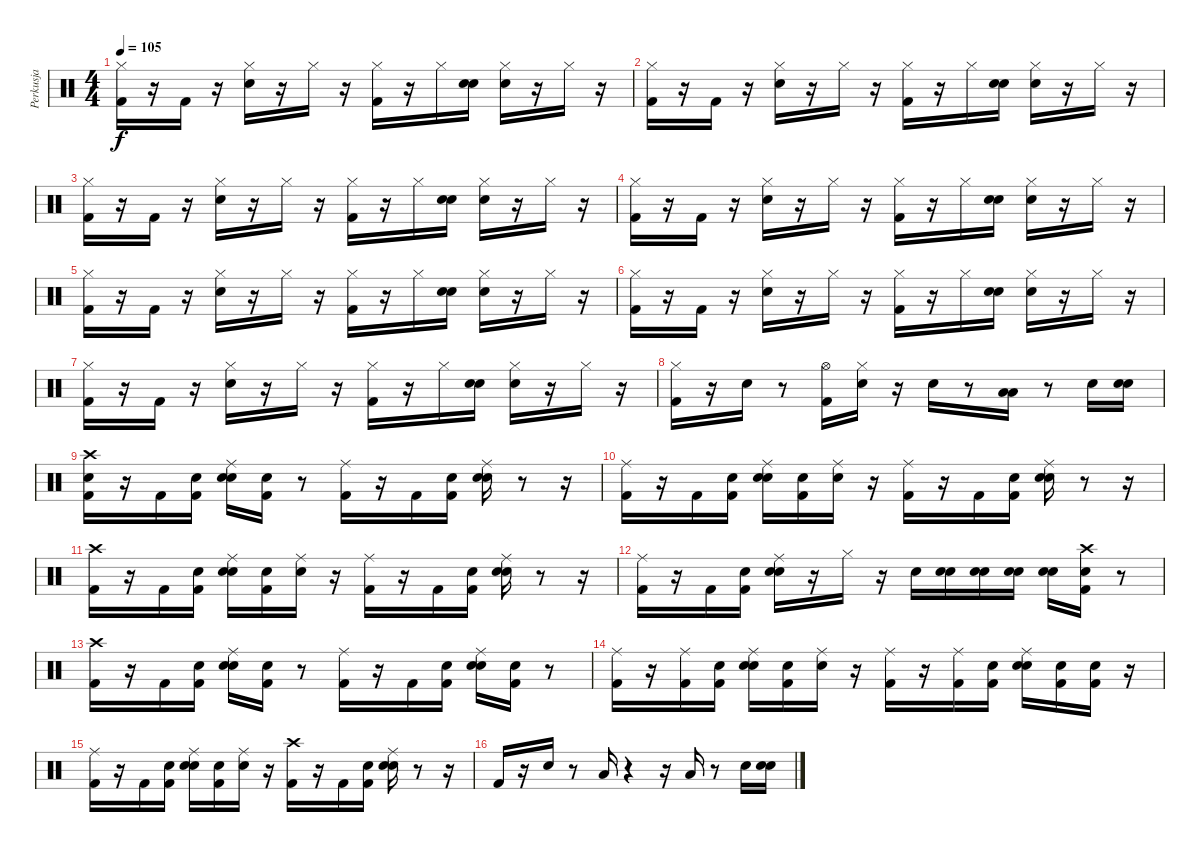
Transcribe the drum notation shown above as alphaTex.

\track ("Perkusja" "Perkusja") {instrument percussion}
\staff {score}
\articulation defaults
\ts (4 4)
\tempo 105
\clef neutral
\ks c
("Kick (hit) 2" "Hi-Hat (closed)").16{dy f} r.16 "Kick (hit) 2".16 r.16 ("Snare (hit) 2" "Hi-Hat (closed)").16 r.16 "Hi-Hat (closed)".16 r.16 ("Kick (hit) 2" "Hi-Hat (closed)").16 r.16 "Hi-Hat (closed)".16 ("Snare (hit)" "Snare (hit) 2").16 ("Snare (hit)" "Hi-Hat (closed)").16 r.16 "Hi-Hat (closed)".16 r.16 |
("Kick (hit) 2" "Hi-Hat (closed)").16 r.16 "Kick (hit) 2".16 r.16 ("Snare (hit) 2" "Hi-Hat (closed)").16 r.16 "Hi-Hat (closed)".16 r.16 ("Kick (hit) 2" "Hi-Hat (closed)").16 r.16 "Hi-Hat (closed)".16 ("Snare (hit)" "Snare (hit) 2").16 ("Snare (hit)" "Hi-Hat (closed)").16 r.16 "Hi-Hat (closed)".16 r.16 |
("Kick (hit) 2" "Hi-Hat (closed)").16 r.16 "Kick (hit) 2".16 r.16 ("Snare (hit) 2" "Hi-Hat (closed)").16 r.16 "Hi-Hat (closed)".16 r.16 ("Kick (hit) 2" "Hi-Hat (closed)").16 r.16 "Hi-Hat (closed)".16 ("Snare (hit)" "Snare (hit) 2").16 ("Snare (hit)" "Hi-Hat (closed)").16 r.16 "Hi-Hat (closed)".16 r.16 |
("Kick (hit) 2" "Hi-Hat (closed)").16 r.16 "Kick (hit) 2".16 r.16 ("Snare (hit) 2" "Hi-Hat (closed)").16 r.16 "Hi-Hat (closed)".16 r.16 ("Kick (hit) 2" "Hi-Hat (closed)").16 r.16 "Hi-Hat (closed)".16 ("Snare (hit)" "Snare (hit) 2").16 ("Snare (hit)" "Hi-Hat (closed)").16 r.16 "Hi-Hat (closed)".16 r.16 |
("Kick (hit) 2" "Hi-Hat (closed)").16 r.16 "Kick (hit) 2".16 r.16 ("Snare (hit) 2" "Hi-Hat (closed)").16 r.16 "Hi-Hat (closed)".16 r.16 ("Kick (hit) 2" "Hi-Hat (closed)").16 r.16 "Hi-Hat (closed)".16 ("Snare (hit)" "Snare (hit) 2").16 ("Snare (hit)" "Hi-Hat (closed)").16 r.16 "Hi-Hat (closed)".16 r.16 |
("Kick (hit) 2" "Hi-Hat (closed)").16 r.16 "Kick (hit) 2".16 r.16 ("Snare (hit) 2" "Hi-Hat (closed)").16 r.16 "Hi-Hat (closed)".16 r.16 ("Kick (hit) 2" "Hi-Hat (closed)").16 r.16 "Hi-Hat (closed)".16 ("Snare (hit)" "Snare (hit) 2").16 ("Snare (hit)" "Hi-Hat (closed)").16 r.16 "Hi-Hat (closed)".16 r.16 |
("Kick (hit) 2" "Hi-Hat (closed)").16 r.16 "Kick (hit) 2".16 r.16 ("Snare (hit) 2" "Hi-Hat (closed)").16 r.16 "Hi-Hat (closed)".16 r.16 ("Kick (hit) 2" "Hi-Hat (closed)").16 r.16 "Hi-Hat (closed)".16 ("Snare (hit)" "Snare (hit) 2").16 ("Snare (hit)" "Hi-Hat (closed)").16 r.16 "Hi-Hat (closed)".16 r.16 |
("Kick (hit) 2" "Hi-Hat (closed)").16 r.16 "Snare (hit) 2".16 r.8 ("Kick (hit) 2" "Hi-Hat (open)").16 ("Snare (hit)" "Hi-Hat (closed)").16 r.16 "Snare (hit) 2".16 r.8 ("Low Floor Tom (hit)" "Low Tom (hit)").16 r.8 "Snare (hit) 2".16 ("Snare (hit)" "Snare (hit) 2").16 |
("Snare (hit)" "Kick (hit) 2" "Crash high (hit)").16 r.16 "Kick (hit) 2".16 ("Snare (hit)" "Kick (hit) 2").16 ("Snare (hit)" "Snare (hit) 2" "Ride (middle)").16 ("Snare (hit)" "Kick (hit) 2").16 r.8 ("Kick (hit) 2" "Ride (middle)").16 r.16 "Kick (hit) 2".16 ("Snare (hit)" "Kick (hit) 2").16 ("Snare (hit)" "Snare (hit) 2" "Ride (middle)").16 r.8 r.16 |
("Kick (hit) 2" "Ride (middle)").16 r.16 "Kick (hit) 2".16 ("Snare (hit)" "Kick (hit) 2").16 ("Snare (hit)" "Snare (hit) 2" "Ride (middle)").16 ("Snare (hit)" "Kick (hit) 2").16 ("Snare (hit)" "Ride (middle)").16 r.16 ("Kick (hit) 2" "Ride (middle)").16 r.16 "Kick (hit) 2".16 ("Snare (hit)" "Kick (hit) 2").16 ("Snare (hit)" "Snare (hit) 2" "Ride (middle)").16 r.8 r.16 |
("Kick (hit) 2" "Crash high (hit)").16 r.16 "Kick (hit) 2".16 ("Snare (hit)" "Kick (hit) 2").16 ("Snare (hit)" "Snare (hit) 2" "Ride (middle)").16 ("Snare (hit)" "Kick (hit) 2").16 ("Snare (hit)" "Ride (middle)").16 r.16 ("Kick (hit) 2" "Ride (middle)").16 r.16 "Kick (hit) 2".16 ("Snare (hit)" "Kick (hit) 2").16 ("Snare (hit)" "Snare (hit) 2" "Ride (middle)").16 r.8 r.16 |
("Kick (hit) 2" "Ride (middle)").16 r.16 "Kick (hit) 2".16 ("Snare (hit)" "Kick (hit) 2").16 ("Snare (hit)" "Snare (hit) 2" "Ride (middle)").16 r.16 "Hi-Hat (closed)".16 r.16 "Snare (hit) 2".16 ("Snare (hit)" "Snare (hit) 2").16 ("Snare (hit)" "Snare (hit) 2").16 ("Snare (hit)" "Snare (hit) 2").16 ("Snare (hit)" "Snare (hit) 2").16 ("Snare (hit)" "Kick (hit) 2" "Crash high (hit)").16 r.8 |
("Kick (hit) 2" "Crash high (hit)").16 r.16 "Kick (hit) 2".16 ("Snare (hit)" "Kick (hit) 2").16 ("Snare (hit)" "Snare (hit) 2" "Ride (middle)").16 ("Snare (hit)" "Kick (hit) 2").16 r.8 ("Kick (hit) 2" "Ride (middle)").16 r.16 "Kick (hit) 2".16 ("Snare (hit)" "Kick (hit) 2").16 ("Snare (hit)" "Snare (hit) 2" "Ride (middle)").16 ("Snare (hit)" "Kick (hit) 2").16 r.8 |
("Kick (hit) 2" "Ride (middle)").16 r.16 ("Kick (hit) 2" "Ride (middle)").16 ("Snare (hit)" "Kick (hit) 2").16 ("Snare (hit)" "Snare (hit) 2" "Ride (middle)").16 ("Snare (hit)" "Kick (hit) 2").16 ("Snare (hit)" "Ride (middle)").16 r.16 ("Kick (hit) 2" "Ride (middle)").16 r.16 ("Kick (hit) 2" "Ride (middle)").16 ("Snare (hit)" "Kick (hit) 2").16 ("Snare (hit)" "Snare (hit) 2" "Ride (middle)").16 ("Snare (hit)" "Kick (hit) 2").16 ("Snare (hit)" "Kick (hit) 2").16 r.16 |
("Kick (hit) 2" "Ride (middle)").16 r.16 "Kick (hit) 2".16 ("Snare (hit)" "Kick (hit) 2").16 ("Snare (hit)" "Snare (hit) 2" "Ride (middle)").16 ("Snare (hit)" "Kick (hit) 2").16 ("Snare (hit)" "Ride (middle)").16 r.16 ("Kick (hit) 2" "Crash high (hit)").16 r.16 "Kick (hit) 2".16 ("Snare (hit)" "Kick (hit) 2").16 ("Snare (hit)" "Snare (hit) 2" "Ride (middle)").16 r.8 r.16 |
"Kick (hit) 2".16 r.16 "Snare (hit) 2".16 r.8 "Low Tom (hit)".16 r.4 r.16 "Low Floor Tom (hit)".16 r.8 "Snare (hit) 2".16 ("Snare (hit)" "Snare (hit) 2").16
